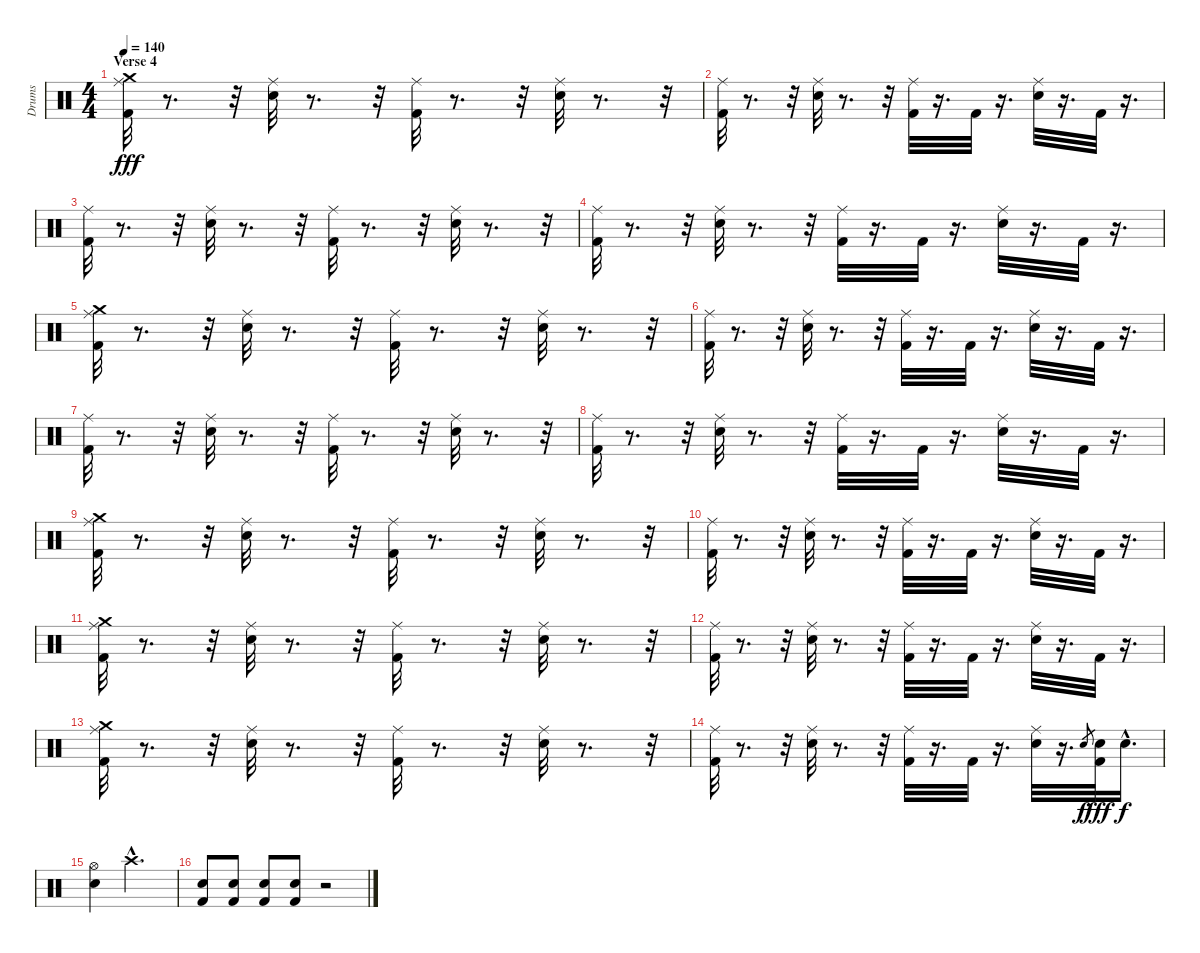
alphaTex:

\track ("Drums" "Drums") {instrument percussion}
\staff {score}
\articulation defaults
\ts (4 4)
\section ("" "Verse 4")
\tempo 140
\clef neutral
\ks c
("Crash medium (hit)" "Kick (hit) 2" "Ride (middle)").32{dy fff} r.8{d} r.32 ("Ride (middle)" "Snare (hit) 2").32 r.8{d} r.32 ("Kick (hit) 2" "Ride (middle)").32 r.8{d} r.32 ("Ride (middle)" "Snare (hit) 2").32 r.8{d} r.32 |
("Kick (hit) 2" "Ride (middle)").32 r.8{d} r.32 ("Ride (middle)" "Snare (hit) 2").32 r.8{d} r.32 ("Kick (hit) 2" "Ride (middle)").32 r.16{d} "Kick (hit) 2".32 r.16{d} ("Ride (middle)" "Snare (hit) 2").32 r.16{d} "Kick (hit) 2".32 r.16{d} |
("Kick (hit) 2" "Ride (middle)").32 r.8{d} r.32 ("Ride (middle)" "Snare (hit) 2").32 r.8{d} r.32 ("Kick (hit) 2" "Ride (middle)").32 r.8{d} r.32 ("Ride (middle)" "Snare (hit) 2").32 r.8{d} r.32 |
("Kick (hit) 2" "Ride (middle)").32 r.8{d} r.32 ("Ride (middle)" "Snare (hit) 2").32 r.8{d} r.32 ("Kick (hit) 2" "Ride (middle)").32 r.16{d} "Kick (hit) 2".32 r.16{d} ("Ride (middle)" "Snare (hit) 2").32 r.16{d} "Kick (hit) 2".32 r.16{d} |
("Crash medium (hit)" "Kick (hit) 2" "Ride (middle)").32 r.8{d} r.32 ("Ride (middle)" "Snare (hit) 2").32 r.8{d} r.32 ("Kick (hit) 2" "Ride (middle)").32 r.8{d} r.32 ("Ride (middle)" "Snare (hit) 2").32 r.8{d} r.32 |
("Kick (hit) 2" "Ride (middle)").32 r.8{d} r.32 ("Ride (middle)" "Snare (hit) 2").32 r.8{d} r.32 ("Kick (hit) 2" "Ride (middle)").32 r.16{d} "Kick (hit) 2".32 r.16{d} ("Ride (middle)" "Snare (hit) 2").32 r.16{d} "Kick (hit) 2".32 r.16{d} |
("Kick (hit) 2" "Ride (middle)").32 r.8{d} r.32 ("Ride (middle)" "Snare (hit) 2").32 r.8{d} r.32 ("Kick (hit) 2" "Ride (middle)").32 r.8{d} r.32 ("Ride (middle)" "Snare (hit) 2").32 r.8{d} r.32 |
("Kick (hit) 2" "Ride (middle)").32 r.8{d} r.32 ("Ride (middle)" "Snare (hit) 2").32 r.8{d} r.32 ("Kick (hit) 2" "Ride (middle)").32 r.16{d} "Kick (hit) 2".32 r.16{d} ("Ride (middle)" "Snare (hit) 2").32 r.16{d} "Kick (hit) 2".32 r.16{d} |
("Crash medium (hit)" "Kick (hit) 2" "Ride (middle)").32 r.8{d} r.32 ("Ride (middle)" "Snare (hit) 2").32 r.8{d} r.32 ("Kick (hit) 2" "Ride (middle)").32 r.8{d} r.32 ("Ride (middle)" "Snare (hit) 2").32 r.8{d} r.32 |
("Kick (hit) 2" "Ride (middle)").32 r.8{d} r.32 ("Ride (middle)" "Snare (hit) 2").32 r.8{d} r.32 ("Kick (hit) 2" "Ride (middle)").32 r.16{d} "Kick (hit) 2".32 r.16{d} ("Ride (middle)" "Snare (hit) 2").32 r.16{d} "Kick (hit) 2".32 r.16{d} |
("Crash medium (hit)" "Kick (hit) 2" "Ride (middle)").32 r.8{d} r.32 ("Ride (middle)" "Snare (hit) 2").32 r.8{d} r.32 ("Kick (hit) 2" "Ride (middle)").32 r.8{d} r.32 ("Ride (middle)" "Snare (hit) 2").32 r.8{d} r.32 |
("Kick (hit) 2" "Ride (middle)").32 r.8{d} r.32 ("Ride (middle)" "Snare (hit) 2").32 r.8{d} r.32 ("Kick (hit) 2" "Ride (middle)").32 r.16{d} "Kick (hit) 2".32 r.16{d} ("Ride (middle)" "Snare (hit) 2").32 r.16{d} "Kick (hit) 2".32 r.16{d} |
("Crash medium (hit)" "Kick (hit) 2" "Ride (middle)").32 r.8{d} r.32 ("Ride (middle)" "Snare (hit) 2").32 r.8{d} r.32 ("Kick (hit) 2" "Ride (middle)").32 r.8{d} r.32 ("Ride (middle)" "Snare (hit) 2").32 r.8{d} r.32 |
("Kick (hit) 2" "Ride (middle)").32 r.8{d} r.32 ("Ride (middle)" "Snare (hit) 2").32 r.8{d} r.32 ("Kick (hit) 2" "Ride (middle)").32 r.16{d} "Kick (hit) 2".32 r.16{d} ("Ride (middle)" "Snare (hit) 2").32 r.16{d} "Snare (hit) 2".8{gr dy f} ("Kick (hit) 2" "Snare (hit) 2").32{dy fff} "Snare (hit) 2"{hac}.16{d dy f} |
("Hi-Hat (open)" "Snare (hit) 2").4 "Crash high (hit)"{hac}.2{d} |
("Snare (hit) 2" "Kick (hit) 2").8 ("Snare (hit) 2" "Kick (hit) 2").8 ("Snare (hit) 2" "Kick (hit) 2").8 ("Snare (hit) 2" "Kick (hit) 2").8 r.2
